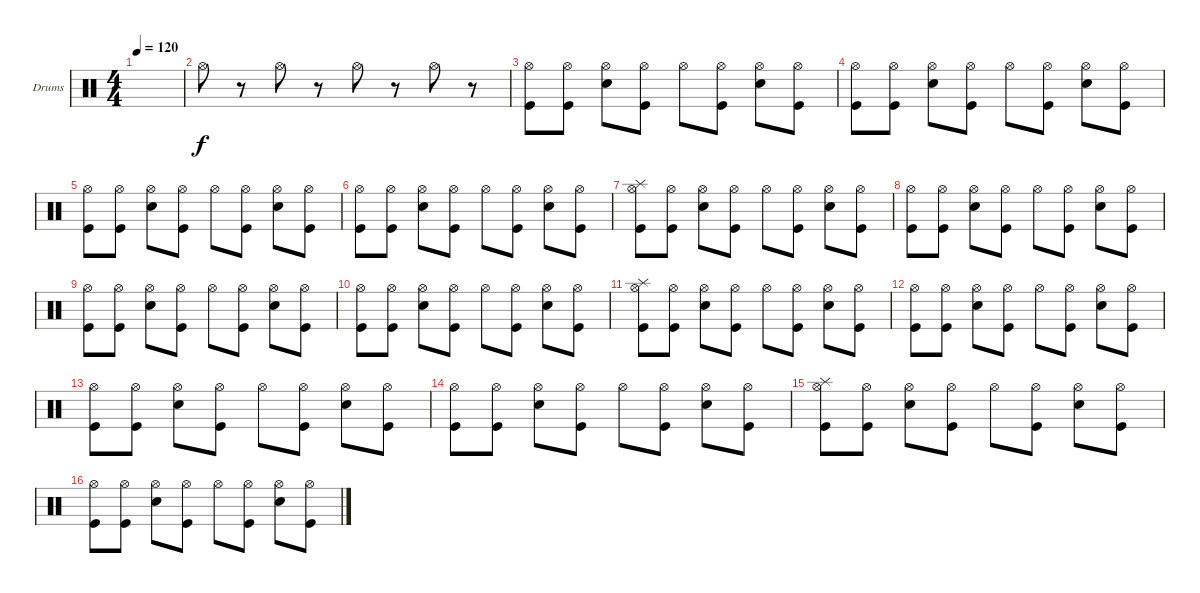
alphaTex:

\defaultSystemsLayout 4
\bracketExtendMode groupsimilarinstruments
\firstSystemTrackNameOrientation horizontal
\otherSystemsTrackNameOrientation horizontal
\track ("Drumkit" "Drums") {instrument percussion}
\staff {score}
\articulation defaults
\ts (4 4)
\tempo 120
\clef neutral
\ks c
|
"Hi-Hat (open)".8 r.8 "Hi-Hat (open)".8 r.8 "Hi-Hat (open)".8 r.8 "Hi-Hat (open)".8 r.8 |
("Hi-Hat (open)" "Kick (hit)").8 ("Hi-Hat (open)" "Kick (hit)").8 ("Hi-Hat (open)" "Snare (hit) 2").8 ("Hi-Hat (open)" "Kick (hit)").8 "Hi-Hat (open)".8 ("Hi-Hat (open)" "Kick (hit)").8 ("Hi-Hat (open)" "Snare (hit) 2").8 ("Hi-Hat (open)" "Kick (hit)").8 |
("Hi-Hat (open)" "Kick (hit)").8 ("Hi-Hat (open)" "Kick (hit)").8 ("Hi-Hat (open)" "Snare (hit) 2").8 ("Hi-Hat (open)" "Kick (hit)").8 "Hi-Hat (open)".8 ("Hi-Hat (open)" "Kick (hit)").8 ("Hi-Hat (open)" "Snare (hit) 2").8 ("Hi-Hat (open)" "Kick (hit)").8 |
("Hi-Hat (open)" "Kick (hit)").8 ("Hi-Hat (open)" "Kick (hit)").8 ("Hi-Hat (open)" "Snare (hit) 2").8 ("Hi-Hat (open)" "Kick (hit)").8 "Hi-Hat (open)".8 ("Hi-Hat (open)" "Kick (hit)").8 ("Hi-Hat (open)" "Snare (hit) 2").8 ("Hi-Hat (open)" "Kick (hit)").8 |
("Hi-Hat (open)" "Kick (hit)").8 ("Hi-Hat (open)" "Kick (hit)").8 ("Hi-Hat (open)" "Snare (hit) 2").8 ("Hi-Hat (open)" "Kick (hit)").8 "Hi-Hat (open)".8 ("Hi-Hat (open)" "Kick (hit)").8 ("Hi-Hat (open)" "Snare (hit) 2").8 ("Hi-Hat (open)" "Kick (hit)").8 |
("Kick (hit)" "Splash (hit)" "Hi-Hat (open)").8 ("Hi-Hat (open)" "Kick (hit)").8 ("Hi-Hat (open)" "Snare (hit) 2").8 ("Hi-Hat (open)" "Kick (hit)").8 "Hi-Hat (open)".8 ("Hi-Hat (open)" "Kick (hit)").8 ("Hi-Hat (open)" "Snare (hit) 2").8 ("Hi-Hat (open)" "Kick (hit)").8 |
("Hi-Hat (open)" "Kick (hit)").8 ("Hi-Hat (open)" "Kick (hit)").8 ("Hi-Hat (open)" "Snare (hit) 2").8 ("Hi-Hat (open)" "Kick (hit)").8 "Hi-Hat (open)".8 ("Hi-Hat (open)" "Kick (hit)").8 ("Hi-Hat (open)" "Snare (hit) 2").8 ("Hi-Hat (open)" "Kick (hit)").8 |
("Hi-Hat (open)" "Kick (hit)").8 ("Hi-Hat (open)" "Kick (hit)").8 ("Hi-Hat (open)" "Snare (hit) 2").8 ("Hi-Hat (open)" "Kick (hit)").8 "Hi-Hat (open)".8 ("Hi-Hat (open)" "Kick (hit)").8 ("Hi-Hat (open)" "Snare (hit) 2").8 ("Hi-Hat (open)" "Kick (hit)").8 |
("Hi-Hat (open)" "Kick (hit)").8 ("Hi-Hat (open)" "Kick (hit)").8 ("Hi-Hat (open)" "Snare (hit) 2").8 ("Hi-Hat (open)" "Kick (hit)").8 "Hi-Hat (open)".8 ("Hi-Hat (open)" "Kick (hit)").8 ("Hi-Hat (open)" "Snare (hit) 2").8 ("Hi-Hat (open)" "Kick (hit)").8 |
("Hi-Hat (open)" "Kick (hit)" "Splash (hit)").8 ("Hi-Hat (open)" "Kick (hit)").8 ("Hi-Hat (open)" "Snare (hit) 2").8 ("Hi-Hat (open)" "Kick (hit)").8 "Hi-Hat (open)".8 ("Hi-Hat (open)" "Kick (hit)").8 ("Hi-Hat (open)" "Snare (hit) 2").8 ("Hi-Hat (open)" "Kick (hit)").8 |
("Hi-Hat (open)" "Kick (hit)").8 ("Hi-Hat (open)" "Kick (hit)").8 ("Hi-Hat (open)" "Snare (hit) 2").8 ("Hi-Hat (open)" "Kick (hit)").8 "Hi-Hat (open)".8 ("Hi-Hat (open)" "Kick (hit)").8 ("Hi-Hat (open)" "Snare (hit) 2").8 ("Hi-Hat (open)" "Kick (hit)").8 |
("Hi-Hat (open)" "Kick (hit)").8 ("Hi-Hat (open)" "Kick (hit)").8 ("Hi-Hat (open)" "Snare (hit) 2").8 ("Hi-Hat (open)" "Kick (hit)").8 "Hi-Hat (open)".8 ("Hi-Hat (open)" "Kick (hit)").8 ("Hi-Hat (open)" "Snare (hit) 2").8 ("Hi-Hat (open)" "Kick (hit)").8 |
("Hi-Hat (open)" "Kick (hit)").8 ("Hi-Hat (open)" "Kick (hit)").8 ("Hi-Hat (open)" "Snare (hit) 2").8 ("Hi-Hat (open)" "Kick (hit)").8 "Hi-Hat (open)".8 ("Hi-Hat (open)" "Kick (hit)").8 ("Hi-Hat (open)" "Snare (hit) 2").8 ("Hi-Hat (open)" "Kick (hit)").8 |
("Hi-Hat (open)" "Kick (hit)" "Splash (hit)").8 ("Hi-Hat (open)" "Kick (hit)").8 ("Hi-Hat (open)" "Snare (hit) 2").8 ("Hi-Hat (open)" "Kick (hit)").8 "Hi-Hat (open)".8 ("Hi-Hat (open)" "Kick (hit)").8 ("Hi-Hat (open)" "Snare (hit) 2").8 ("Hi-Hat (open)" "Kick (hit)").8 |
("Hi-Hat (open)" "Kick (hit)").8 ("Hi-Hat (open)" "Kick (hit)").8 ("Hi-Hat (open)" "Snare (hit) 2").8 ("Hi-Hat (open)" "Kick (hit)").8 "Hi-Hat (open)".8 ("Hi-Hat (open)" "Kick (hit)").8 ("Hi-Hat (open)" "Snare (hit) 2").8 ("Hi-Hat (open)" "Kick (hit)").8
